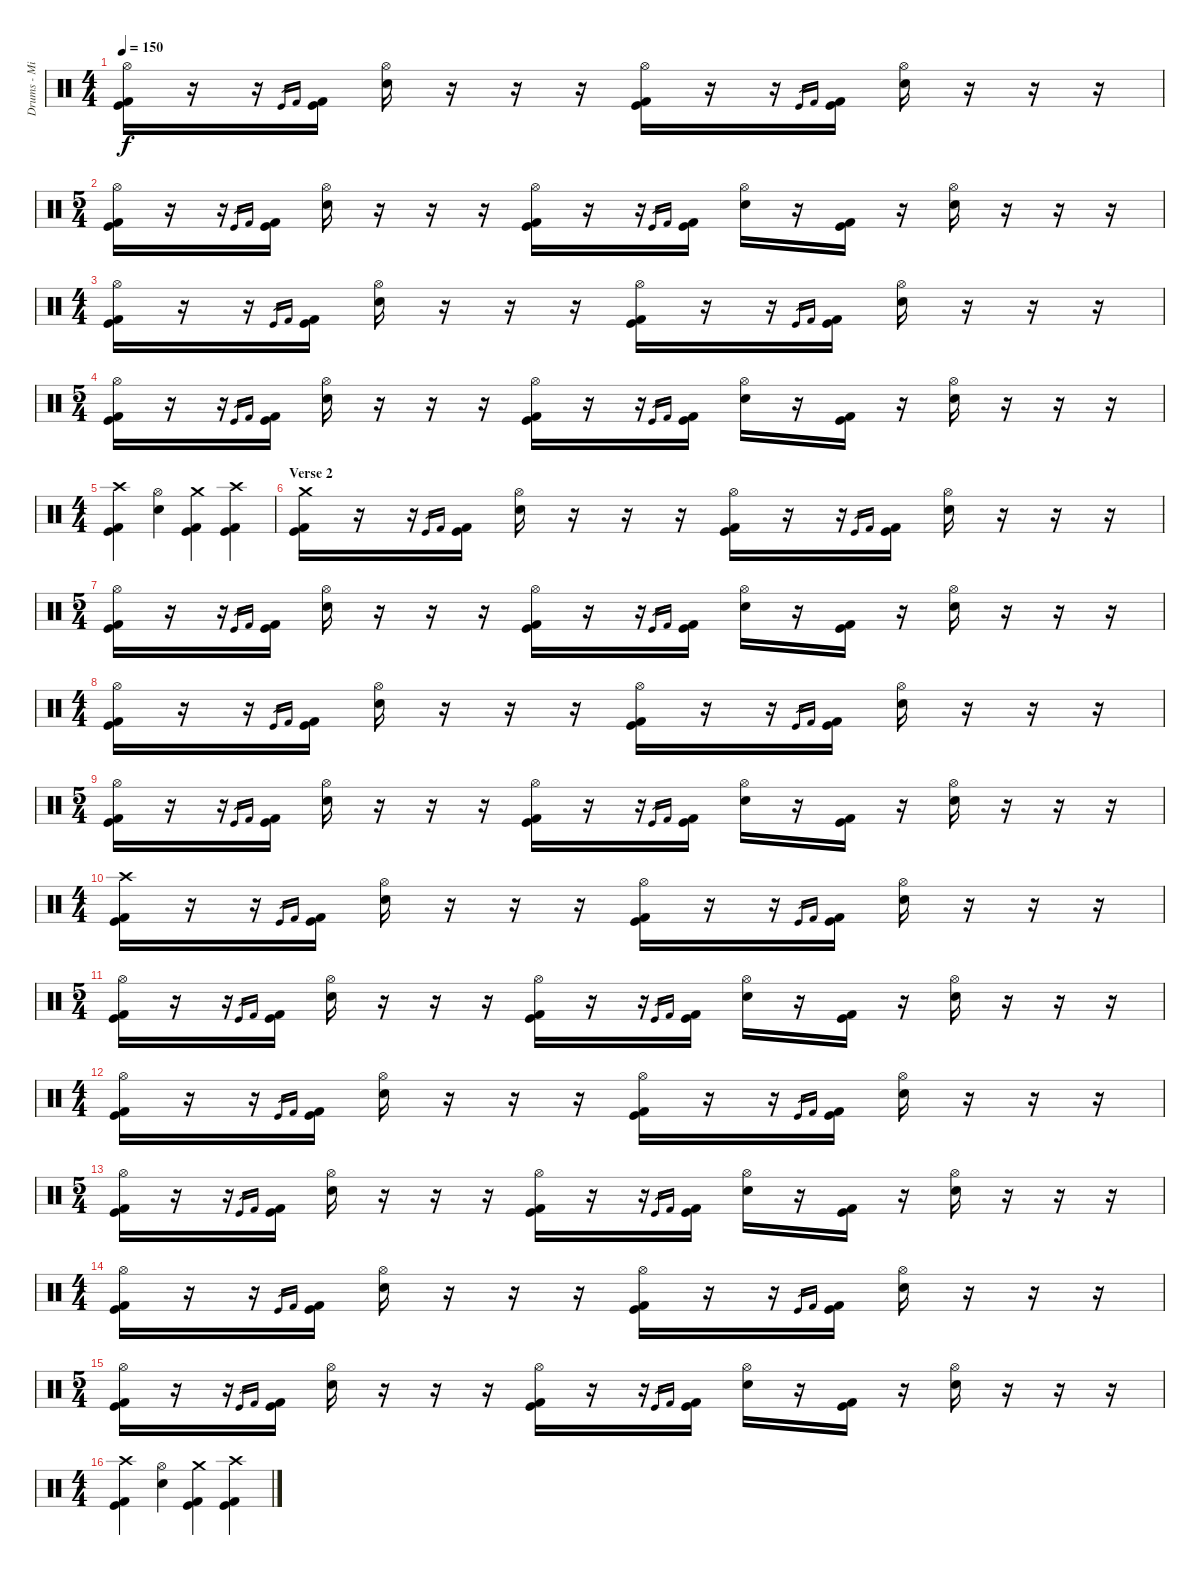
\track ("Drums - Mikkey Dee" "Drums - Mi") {instrument percussion}
\staff {score}
\articulation defaults
\ts (4 4)
\tempo 150
\clef neutral
\ks c
("Hi-Hat (open)" "Kick (hit)" "Kick (hit) 2").16{dy f} r.16 r.16 "Kick (hit)".16{gr} "Kick (hit) 2".16{gr} ("Kick (hit)" "Kick (hit) 2").16 ("Hi-Hat (open)" "Electric Snare (hit)").16 r.16 r.16 r.16 ("Hi-Hat (open)" "Kick (hit)" "Kick (hit) 2").16 r.16 r.16 "Kick (hit)".16{gr} "Kick (hit) 2".16{gr} ("Kick (hit)" "Kick (hit) 2").16 ("Hi-Hat (open)" "Electric Snare (hit)").16 r.16 r.16 r.16 |
\ts (5 4)
("Hi-Hat (open)" "Kick (hit)" "Kick (hit) 2").16 r.16 r.16 "Kick (hit)".16{gr} "Kick (hit) 2".16{gr} ("Kick (hit)" "Kick (hit) 2").16 ("Hi-Hat (open)" "Electric Snare (hit)").16 r.16 r.16 r.16 ("Hi-Hat (open)" "Kick (hit)" "Kick (hit) 2").16 r.16 r.16 "Kick (hit)".16{gr} "Kick (hit) 2".16{gr} ("Kick (hit)" "Kick (hit) 2").16 ("Hi-Hat (open)" "Electric Snare (hit)").16 r.16 ("Kick (hit)" "Kick (hit) 2").16 r.16 ("Hi-Hat (open)" "Electric Snare (hit)").16 r.16 r.16 r.16 |
\ts (4 4)
("Hi-Hat (open)" "Kick (hit)" "Kick (hit) 2").16 r.16 r.16 "Kick (hit)".16{gr} "Kick (hit) 2".16{gr} ("Kick (hit)" "Kick (hit) 2").16 ("Hi-Hat (open)" "Electric Snare (hit)").16 r.16 r.16 r.16 ("Hi-Hat (open)" "Kick (hit)" "Kick (hit) 2").16 r.16 r.16 "Kick (hit)".16{gr} "Kick (hit) 2".16{gr} ("Kick (hit)" "Kick (hit) 2").16 ("Hi-Hat (open)" "Electric Snare (hit)").16 r.16 r.16 r.16 |
\ts (5 4)
("Hi-Hat (open)" "Kick (hit)" "Kick (hit) 2").16 r.16 r.16 "Kick (hit)".16{gr} "Kick (hit) 2".16{gr} ("Kick (hit)" "Kick (hit) 2").16 ("Hi-Hat (open)" "Electric Snare (hit)").16 r.16 r.16 r.16 ("Hi-Hat (open)" "Kick (hit)" "Kick (hit) 2").16 r.16 r.16 "Kick (hit)".16{gr} "Kick (hit) 2".16{gr} ("Kick (hit)" "Kick (hit) 2").16 ("Hi-Hat (open)" "Electric Snare (hit)").16 r.16 ("Kick (hit)" "Kick (hit) 2").16 r.16 ("Hi-Hat (open)" "Electric Snare (hit)").16 r.16 r.16 r.16 |
\ts (4 4)
("Crash high (hit)" "Kick (hit)" "Kick (hit) 2").4 ("Hi-Hat (open)" "Electric Snare (hit)").4 ("Crash medium (hit)" "Kick (hit)" "Kick (hit) 2").4 ("Crash high (hit)" "Kick (hit)" "Kick (hit) 2").4 |
\section ("" "Verse 2")
("Crash medium (hit)" "Kick (hit)" "Kick (hit) 2").16 r.16 r.16 "Kick (hit)".16{gr} "Kick (hit) 2".16{gr} ("Kick (hit)" "Kick (hit) 2").16 ("Hi-Hat (open)" "Electric Snare (hit)").16 r.16 r.16 r.16 ("Hi-Hat (open)" "Kick (hit)" "Kick (hit) 2").16 r.16 r.16 "Kick (hit)".16{gr} "Kick (hit) 2".16{gr} ("Kick (hit)" "Kick (hit) 2").16 ("Hi-Hat (open)" "Electric Snare (hit)").16 r.16 r.16 r.16 |
\ts (5 4)
("Hi-Hat (open)" "Kick (hit)" "Kick (hit) 2").16 r.16 r.16 "Kick (hit)".16{gr} "Kick (hit) 2".16{gr} ("Kick (hit)" "Kick (hit) 2").16 ("Hi-Hat (open)" "Electric Snare (hit)").16 r.16 r.16 r.16 ("Hi-Hat (open)" "Kick (hit)" "Kick (hit) 2").16 r.16 r.16 "Kick (hit)".16{gr} "Kick (hit) 2".16{gr} ("Kick (hit)" "Kick (hit) 2").16 ("Hi-Hat (open)" "Electric Snare (hit)").16 r.16 ("Kick (hit)" "Kick (hit) 2").16 r.16 ("Hi-Hat (open)" "Electric Snare (hit)").16 r.16 r.16 r.16 |
\ts (4 4)
("Hi-Hat (open)" "Kick (hit)" "Kick (hit) 2").16 r.16 r.16 "Kick (hit)".16{gr} "Kick (hit) 2".16{gr} ("Kick (hit)" "Kick (hit) 2").16 ("Hi-Hat (open)" "Electric Snare (hit)").16 r.16 r.16 r.16 ("Hi-Hat (open)" "Kick (hit)" "Kick (hit) 2").16 r.16 r.16 "Kick (hit)".16{gr} "Kick (hit) 2".16{gr} ("Kick (hit)" "Kick (hit) 2").16 ("Hi-Hat (open)" "Electric Snare (hit)").16 r.16 r.16 r.16 |
\ts (5 4)
("Hi-Hat (open)" "Kick (hit)" "Kick (hit) 2").16 r.16 r.16 "Kick (hit)".16{gr} "Kick (hit) 2".16{gr} ("Kick (hit)" "Kick (hit) 2").16 ("Hi-Hat (open)" "Electric Snare (hit)").16 r.16 r.16 r.16 ("Hi-Hat (open)" "Kick (hit)" "Kick (hit) 2").16 r.16 r.16 "Kick (hit)".16{gr} "Kick (hit) 2".16{gr} ("Kick (hit)" "Kick (hit) 2").16 ("Hi-Hat (open)" "Electric Snare (hit)").16 r.16 ("Kick (hit)" "Kick (hit) 2").16 r.16 ("Hi-Hat (open)" "Electric Snare (hit)").16 r.16 r.16 r.16 |
\ts (4 4)
("Crash high (hit)" "Kick (hit)" "Kick (hit) 2").16 r.16 r.16 "Kick (hit)".16{gr} "Kick (hit) 2".16{gr} ("Kick (hit)" "Kick (hit) 2").16 ("Hi-Hat (open)" "Electric Snare (hit)").16 r.16 r.16 r.16 ("Hi-Hat (open)" "Kick (hit)" "Kick (hit) 2").16 r.16 r.16 "Kick (hit)".16{gr} "Kick (hit) 2".16{gr} ("Kick (hit)" "Kick (hit) 2").16 ("Hi-Hat (open)" "Electric Snare (hit)").16 r.16 r.16 r.16 |
\ts (5 4)
("Hi-Hat (open)" "Kick (hit)" "Kick (hit) 2").16 r.16 r.16 "Kick (hit)".16{gr} "Kick (hit) 2".16{gr} ("Kick (hit)" "Kick (hit) 2").16 ("Hi-Hat (open)" "Electric Snare (hit)").16 r.16 r.16 r.16 ("Hi-Hat (open)" "Kick (hit)" "Kick (hit) 2").16 r.16 r.16 "Kick (hit)".16{gr} "Kick (hit) 2".16{gr} ("Kick (hit)" "Kick (hit) 2").16 ("Hi-Hat (open)" "Electric Snare (hit)").16 r.16 ("Kick (hit)" "Kick (hit) 2").16 r.16 ("Hi-Hat (open)" "Electric Snare (hit)").16 r.16 r.16 r.16 |
\ts (4 4)
("Hi-Hat (open)" "Kick (hit)" "Kick (hit) 2").16 r.16 r.16 "Kick (hit)".16{gr} "Kick (hit) 2".16{gr} ("Kick (hit)" "Kick (hit) 2").16 ("Hi-Hat (open)" "Electric Snare (hit)").16 r.16 r.16 r.16 ("Hi-Hat (open)" "Kick (hit)" "Kick (hit) 2").16 r.16 r.16 "Kick (hit)".16{gr} "Kick (hit) 2".16{gr} ("Kick (hit)" "Kick (hit) 2").16 ("Hi-Hat (open)" "Electric Snare (hit)").16 r.16 r.16 r.16 |
\ts (5 4)
("Hi-Hat (open)" "Kick (hit)" "Kick (hit) 2").16 r.16 r.16 "Kick (hit)".16{gr} "Kick (hit) 2".16{gr} ("Kick (hit)" "Kick (hit) 2").16 ("Hi-Hat (open)" "Electric Snare (hit)").16 r.16 r.16 r.16 ("Hi-Hat (open)" "Kick (hit)" "Kick (hit) 2").16 r.16 r.16 "Kick (hit)".16{gr} "Kick (hit) 2".16{gr} ("Kick (hit)" "Kick (hit) 2").16 ("Hi-Hat (open)" "Electric Snare (hit)").16 r.16 ("Kick (hit)" "Kick (hit) 2").16 r.16 ("Hi-Hat (open)" "Electric Snare (hit)").16 r.16 r.16 r.16 |
\ts (4 4)
("Hi-Hat (open)" "Kick (hit)" "Kick (hit) 2").16 r.16 r.16 "Kick (hit)".16{gr} "Kick (hit) 2".16{gr} ("Kick (hit)" "Kick (hit) 2").16 ("Hi-Hat (open)" "Electric Snare (hit)").16 r.16 r.16 r.16 ("Hi-Hat (open)" "Kick (hit)" "Kick (hit) 2").16 r.16 r.16 "Kick (hit)".16{gr} "Kick (hit) 2".16{gr} ("Kick (hit)" "Kick (hit) 2").16 ("Hi-Hat (open)" "Electric Snare (hit)").16 r.16 r.16 r.16 |
\ts (5 4)
("Hi-Hat (open)" "Kick (hit)" "Kick (hit) 2").16 r.16 r.16 "Kick (hit)".16{gr} "Kick (hit) 2".16{gr} ("Kick (hit)" "Kick (hit) 2").16 ("Hi-Hat (open)" "Electric Snare (hit)").16 r.16 r.16 r.16 ("Hi-Hat (open)" "Kick (hit)" "Kick (hit) 2").16 r.16 r.16 "Kick (hit)".16{gr} "Kick (hit) 2".16{gr} ("Kick (hit)" "Kick (hit) 2").16 ("Hi-Hat (open)" "Electric Snare (hit)").16 r.16 ("Kick (hit)" "Kick (hit) 2").16 r.16 ("Hi-Hat (open)" "Electric Snare (hit)").16 r.16 r.16 r.16 |
\ts (4 4)
("Crash high (hit)" "Kick (hit)" "Kick (hit) 2").4 ("Hi-Hat (open)" "Electric Snare (hit)").4 ("Crash medium (hit)" "Kick (hit)" "Kick (hit) 2").4 ("Crash high (hit)" "Kick (hit)" "Kick (hit) 2").4
